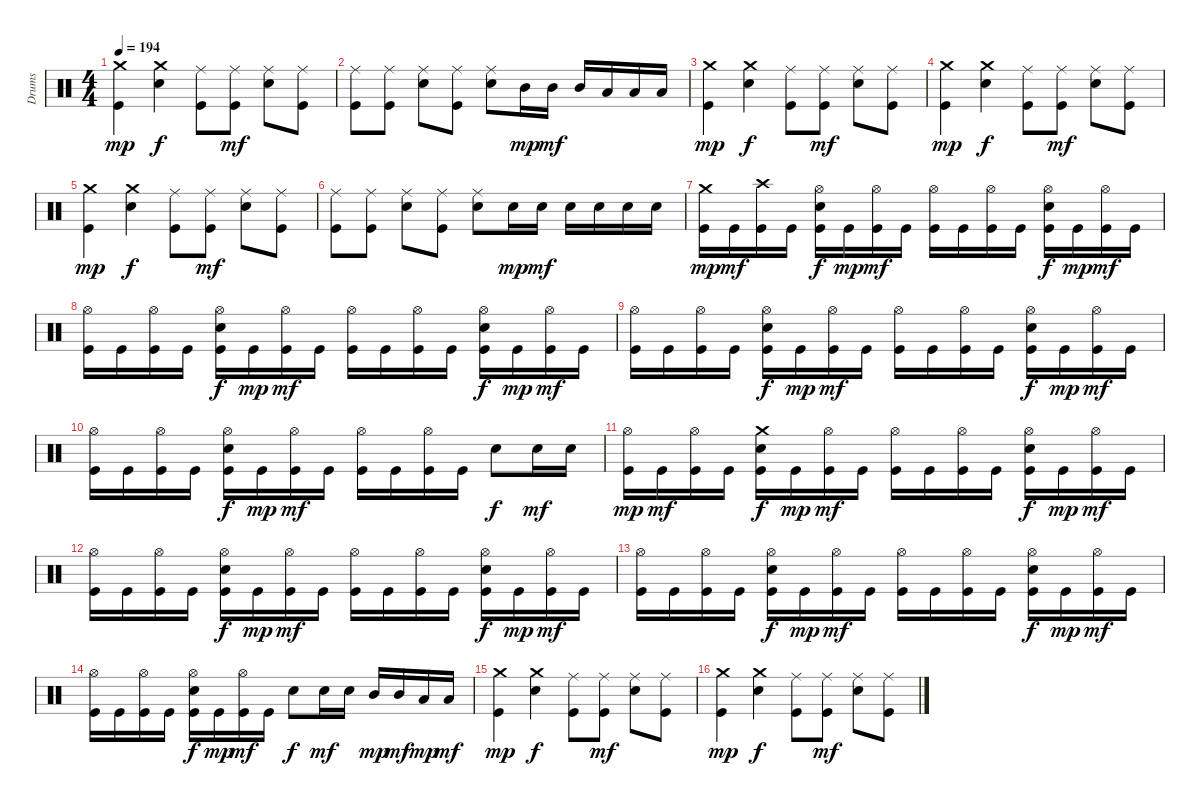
\track ("Drums" "Drums") {instrument percussion}
\staff {score}
\articulation defaults
\ts (4 4)
\tempo 194
\clef neutral
\ks c
("Crash medium (hit)" "Kick (hit)").4{dy mp} ("Crash medium (hit)" "Snare (hit) 2").4{dy f} ("Kick (hit)" "Ride (middle)").8 ("Kick (hit)" "Ride (middle)").8{dy mf} ("Snare (hit) 2" "Ride (middle)").8 ("Kick (hit)" "Ride (middle)").8 |
("Kick (hit)" "Ride (middle)").8 ("Kick (hit)" "Ride (middle)").8 ("Snare (hit) 2" "Ride (middle)").8 ("Kick (hit)" "Ride (middle)").8 ("Snare (hit) 2" "Ride (middle)").8 "Mid Tom (hit)".16{dy mp} "Mid Tom (hit)".16{dy mf} "Mid Tom (hit)".16 "Low Tom (hit)".16 "Low Tom (hit)".16 "Low Tom (hit)".16 |
("Crash medium (hit)" "Kick (hit)").4{dy mp} ("Crash medium (hit)" "Snare (hit) 2").4{dy f} ("Kick (hit)" "Ride (middle)").8 ("Kick (hit)" "Ride (middle)").8{dy mf} ("Snare (hit) 2" "Ride (middle)").8 ("Kick (hit)" "Ride (middle)").8 |
("Crash medium (hit)" "Kick (hit)").4{dy mp} ("Crash medium (hit)" "Snare (hit) 2").4{dy f} ("Kick (hit)" "Ride (middle)").8 ("Kick (hit)" "Ride (middle)").8{dy mf} ("Snare (hit) 2" "Ride (middle)").8 ("Kick (hit)" "Ride (middle)").8 |
("Crash medium (hit)" "Kick (hit)").4{dy mp} ("Crash medium (hit)" "Snare (hit) 2").4{dy f} ("Kick (hit)" "Ride (middle)").8 ("Kick (hit)" "Ride (middle)").8{dy mf} ("Snare (hit) 2" "Ride (middle)").8 ("Kick (hit)" "Ride (middle)").8 |
("Kick (hit)" "Ride (middle)").8 ("Kick (hit)" "Ride (middle)").8 ("Snare (hit) 2" "Ride (middle)").8 ("Kick (hit)" "Ride (middle)").8 ("Snare (hit) 2" "Ride (middle)").8 "Snare (hit) 2".16{dy mp} "Snare (hit) 2".16{dy mf} "Snare (hit) 2".16 "Snare (hit) 2".16 "Snare (hit) 2".16 "Snare (hit) 2".16 |
("Crash medium (hit)" "Kick (hit)").16{dy mp} "Kick (hit)".16{dy mf} ("Crash high (hit)" "Kick (hit)").16 "Kick (hit)".16 ("Hi-Hat (open)" "Kick (hit)" "Snare (hit) 2").16{dy f} "Kick (hit)".16{dy mp} ("Hi-Hat (open)" "Kick (hit)").16{dy mf} "Kick (hit)".16 ("Hi-Hat (open)" "Kick (hit)").16 "Kick (hit)".16 ("Hi-Hat (open)" "Kick (hit)").16 "Kick (hit)".16 ("Hi-Hat (open)" "Kick (hit)" "Snare (hit) 2").16{dy f} "Kick (hit)".16{dy mp} ("Hi-Hat (open)" "Kick (hit)").16{dy mf} "Kick (hit)".16 |
("Hi-Hat (open)" "Kick (hit)").16 "Kick (hit)".16 ("Hi-Hat (open)" "Kick (hit)").16 "Kick (hit)".16 ("Hi-Hat (open)" "Kick (hit)" "Snare (hit) 2").16{dy f} "Kick (hit)".16{dy mp} ("Hi-Hat (open)" "Kick (hit)").16{dy mf} "Kick (hit)".16 ("Hi-Hat (open)" "Kick (hit)").16 "Kick (hit)".16 ("Hi-Hat (open)" "Kick (hit)").16 "Kick (hit)".16 ("Hi-Hat (open)" "Kick (hit)" "Snare (hit) 2").16{dy f} "Kick (hit)".16{dy mp} ("Hi-Hat (open)" "Kick (hit)").16{dy mf} "Kick (hit)".16 |
("Hi-Hat (open)" "Kick (hit)").16 "Kick (hit)".16 ("Hi-Hat (open)" "Kick (hit)").16 "Kick (hit)".16 ("Hi-Hat (open)" "Kick (hit)" "Snare (hit) 2").16{dy f} "Kick (hit)".16{dy mp} ("Hi-Hat (open)" "Kick (hit)").16{dy mf} "Kick (hit)".16 ("Hi-Hat (open)" "Kick (hit)").16 "Kick (hit)".16 ("Hi-Hat (open)" "Kick (hit)").16 "Kick (hit)".16 ("Hi-Hat (open)" "Kick (hit)" "Snare (hit) 2").16{dy f} "Kick (hit)".16{dy mp} ("Hi-Hat (open)" "Kick (hit)").16{dy mf} "Kick (hit)".16 |
("Hi-Hat (open)" "Kick (hit)").16 "Kick (hit)".16 ("Hi-Hat (open)" "Kick (hit)").16 "Kick (hit)".16 ("Hi-Hat (open)" "Kick (hit)" "Snare (hit) 2").16{dy f} "Kick (hit)".16{dy mp} ("Hi-Hat (open)" "Kick (hit)").16{dy mf} "Kick (hit)".16 ("Hi-Hat (open)" "Kick (hit)").16 "Kick (hit)".16 ("Hi-Hat (open)" "Kick (hit)").16 "Kick (hit)".16 "Snare (hit) 2".8{dy f} "Snare (hit) 2".16{dy mf} "Snare (hit) 2".16 |
("Hi-Hat (open)" "Kick (hit)").16{dy mp} "Kick (hit)".16{dy mf} ("Hi-Hat (open)" "Kick (hit)").16 "Kick (hit)".16 ("Crash medium (hit)" "Kick (hit)" "Snare (hit) 2").16{dy f} "Kick (hit)".16{dy mp} ("Hi-Hat (open)" "Kick (hit)").16{dy mf} "Kick (hit)".16 ("Hi-Hat (open)" "Kick (hit)").16 "Kick (hit)".16 ("Hi-Hat (open)" "Kick (hit)").16 "Kick (hit)".16 ("Hi-Hat (open)" "Kick (hit)" "Snare (hit) 2").16{dy f} "Kick (hit)".16{dy mp} ("Hi-Hat (open)" "Kick (hit)").16{dy mf} "Kick (hit)".16 |
("Hi-Hat (open)" "Kick (hit)").16 "Kick (hit)".16 ("Hi-Hat (open)" "Kick (hit)").16 "Kick (hit)".16 ("Hi-Hat (open)" "Kick (hit)" "Snare (hit) 2").16{dy f} "Kick (hit)".16{dy mp} ("Hi-Hat (open)" "Kick (hit)").16{dy mf} "Kick (hit)".16 ("Hi-Hat (open)" "Kick (hit)").16 "Kick (hit)".16 ("Hi-Hat (open)" "Kick (hit)").16 "Kick (hit)".16 ("Hi-Hat (open)" "Kick (hit)" "Snare (hit) 2").16{dy f} "Kick (hit)".16{dy mp} ("Hi-Hat (open)" "Kick (hit)").16{dy mf} "Kick (hit)".16 |
("Hi-Hat (open)" "Kick (hit)").16 "Kick (hit)".16 ("Hi-Hat (open)" "Kick (hit)").16 "Kick (hit)".16 ("Hi-Hat (open)" "Kick (hit)" "Snare (hit) 2").16{dy f} "Kick (hit)".16{dy mp} ("Hi-Hat (open)" "Kick (hit)").16{dy mf} "Kick (hit)".16 ("Hi-Hat (open)" "Kick (hit)").16 "Kick (hit)".16 ("Hi-Hat (open)" "Kick (hit)").16 "Kick (hit)".16 ("Hi-Hat (open)" "Kick (hit)" "Snare (hit) 2").16{dy f} "Kick (hit)".16{dy mp} ("Hi-Hat (open)" "Kick (hit)").16{dy mf} "Kick (hit)".16 |
("Hi-Hat (open)" "Kick (hit)").16 "Kick (hit)".16 ("Hi-Hat (open)" "Kick (hit)").16 "Kick (hit)".16 ("Hi-Hat (open)" "Kick (hit)" "Snare (hit) 2").16{dy f} "Kick (hit)".16{dy mp} ("Hi-Hat (open)" "Kick (hit)").16{dy mf} "Kick (hit)".16 "Snare (hit) 2".8{dy f} "Snare (hit) 2".16{dy mf} "Snare (hit) 2".16 "Mid Tom (hit)".16{dy mp} "Mid Tom (hit)".16{dy mf} "Low Tom (hit)".16{dy mp} "Low Tom (hit)".16{dy mf} |
("Crash medium (hit)" "Kick (hit)").4{dy mp} ("Crash medium (hit)" "Snare (hit) 2").4{dy f} ("Kick (hit)" "Ride (middle)").8 ("Kick (hit)" "Ride (middle)").8{dy mf} ("Snare (hit) 2" "Ride (middle)").8 ("Kick (hit)" "Ride (middle)").8 |
("Crash medium (hit)" "Kick (hit)").4{dy mp} ("Crash medium (hit)" "Snare (hit) 2").4{dy f} ("Kick (hit)" "Ride (middle)").8 ("Kick (hit)" "Ride (middle)").8{dy mf} ("Snare (hit) 2" "Ride (middle)").8 ("Kick (hit)" "Ride (middle)").8
